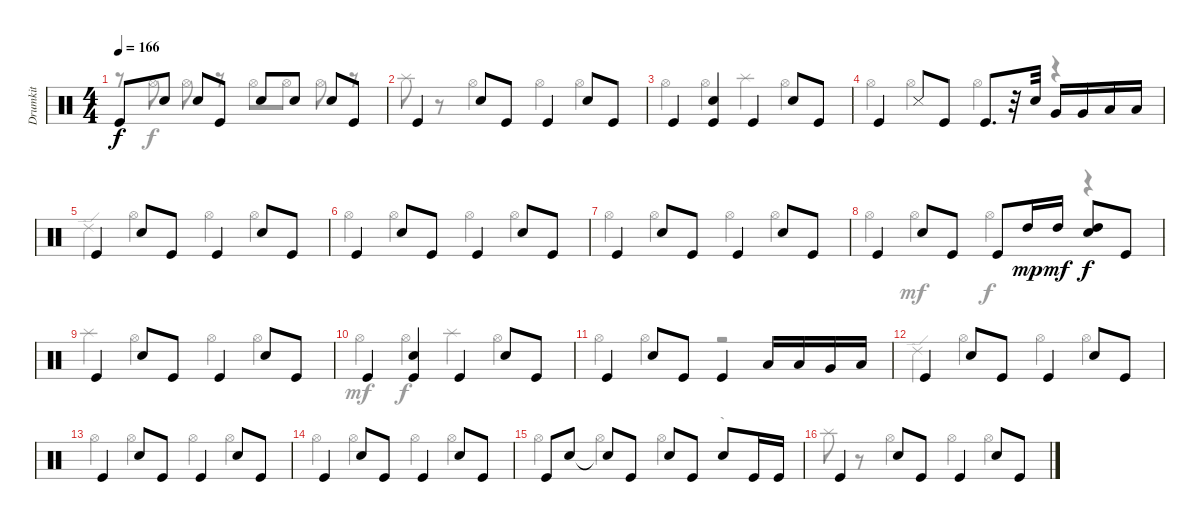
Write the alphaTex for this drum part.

\track ("Drumkit" "Drumkit") {instrument percussion}
\staff {score}
\articulation defaults
\voice
\ts (4 4)
\tempo 166
\clef neutral
\ks c "Kick (hit)".8{dy f} "Snare (hit) 2".8 "Snare (hit) 2".8 "Kick (hit)".8 "Snare (hit) 2".8 "Snare (hit) 2".8 "Snare (hit) 2".8 "Kick (hit)".8
|
"Kick (hit)".4 "Snare (hit) 2".8 "Kick (hit)".8 "Kick (hit)".4 "Snare (hit) 2".8 "Kick (hit)".8 |
"Kick (hit)".4 ("Kick (hit)" "Snare (hit) 2").4 "Kick (hit)".4 "Snare (hit) 2".8 "Kick (hit)".8 |
"Kick (hit)".4 "Snare (side stick) 3".8 "Kick (hit)".8 "Kick (hit)".8{d} r.32 "Snare (hit) 2".32 "Very Low Tom (hit)".16 "Very Low Tom (hit)".16 "Low Floor Tom (hit)".16 "Low Floor Tom (hit)".16 |
"Kick (hit)".4 "Snare (hit) 2".8 "Kick (hit)".8 "Kick (hit)".4 "Snare (hit) 2".8 "Kick (hit)".8 |
"Kick (hit)".4 "Snare (hit) 2".8 "Kick (hit)".8 "Kick (hit)".4 "Snare (hit) 2".8 "Kick (hit)".8 |
"Kick (hit)".4 "Snare (hit) 2".8 "Kick (hit)".8 "Kick (hit)".4 "Snare (hit) 2".8 "Kick (hit)".8 |
"Kick (hit)".4 "Snare (hit) 2".8 "Kick (hit)".8 "Kick (hit)".8 "High Tom (hit)".16{dy mp} "High Tom (hit)".16{dy mf} ("Snare (hit) 2" "High Tom (hit)").8{dy f} "Kick (hit)".8 |
"Kick (hit)".4 "Snare (hit) 2".8 "Kick (hit)".8 "Kick (hit)".4 "Snare (hit) 2".8 "Kick (hit)".8 |
"Kick (hit)".4 ("Kick (hit)" "Snare (hit) 2").4 "Kick (hit)".4 "Snare (hit) 2".8 "Kick (hit)".8 |
"Kick (hit)".4 "Snare (hit) 2".8 "Kick (hit)".8 "Kick (hit)".4 "Low Tom (hit)".16 "Low Tom (hit)".16 "Very Low Tom (hit)".16 "Low Floor Tom (hit)".16 |
"Kick (hit)".4 "Snare (hit) 2".8 "Kick (hit)".8 "Kick (hit)".4 "Snare (hit) 2".8 "Kick (hit)".8 |
"Kick (hit)".4 "Snare (hit) 2".8 "Kick (hit)".8 "Kick (hit)".4 "Snare (hit) 2".8 "Kick (hit)".8 |
"Kick (hit)".4 "Snare (hit) 2".8 "Kick (hit)".8 "Kick (hit)".4 "Snare (hit) 2".8 "Kick (hit)".8 |
"Kick (hit)".8 "Snare (hit) 2".8 "Snare (hit) 2"{t}.8 "Kick (hit)".8 "Snare (hit) 2".8 "Kick (hit)".8 "Snare (hit) 2".8 "Kick (hit)".16 "Kick (hit)".16 |
"Kick (hit)".4 "Snare (hit) 2".8 "Kick (hit)".8 "Kick (hit)".4 "Snare (hit) 2".8 "Kick (hit)".8
\voice
\clef neutral
\ottava regular
\simile none
\ks c
r.8{dy f} "Hi-Hat (open)".8 "Hi-Hat (open)".8 r.8 "Hi-Hat (open)".8 "Hi-Hat (open)".8 "Hi-Hat (open)".8 r.8 |
"Splash (hit)".8 r.8 "Hi-Hat (open)".4 "Hi-Hat (open)".4 "Hi-Hat (open)".4 |
"Hi-Hat (open)".4 "Hi-Hat (open)".4 "Splash (hit)".4 "Hi-Hat (open)".4 |
"Hi-Hat (open)".4 "Hi-Hat (open)".4 "Hi-Hat (open)".4 r.4 |
"Ride (edge) 2".4 "Hi-Hat (open)".4 "Hi-Hat (open)".4 "Hi-Hat (open)".4 |
"Hi-Hat (open)".4 "Hi-Hat (open)".4 "Hi-Hat (open)".4 "Hi-Hat (open)".4 |
"Hi-Hat (open)".4 "Hi-Hat (open)".4 "Hi-Hat (open)".4 "Hi-Hat (open)".4 |
"Hi-Hat (open)".4 "Hi-Hat (open)".4{dy mf} "Hi-Hat (open)".4{dy f} r.4 |
"Splash (hit)".4 "Hi-Hat (open)".4 "Hi-Hat (open)".4 "Hi-Hat (open)".4 |
"Hi-Hat (open)".4{dy mf} "Hi-Hat (open)".4{dy f} "Splash (hit)".4 "Hi-Hat (open)".4 |
"Hi-Hat (open)".4 "Hi-Hat (open)".4 r.2 |
"Ride (edge) 2".4 "Hi-Hat (open)".4 "Hi-Hat (open)".4 "Hi-Hat (open)".4 |
"Hi-Hat (open)".4 "Hi-Hat (open)".4 "Hi-Hat (open)".4 "Hi-Hat (open)".4 |
"Hi-Hat (open)".4 "Hi-Hat (open)".4 "Hi-Hat (open)".4 "Hi-Hat (open)".4 |
"Hi-Hat (open)".4 "Hi-Hat (open)".4 "Hi-Hat (open)".4 r.4 |
"Splash (hit)".8 r.8 "Hi-Hat (open)".4 "Hi-Hat (open)".4 "Hi-Hat (open)".4
